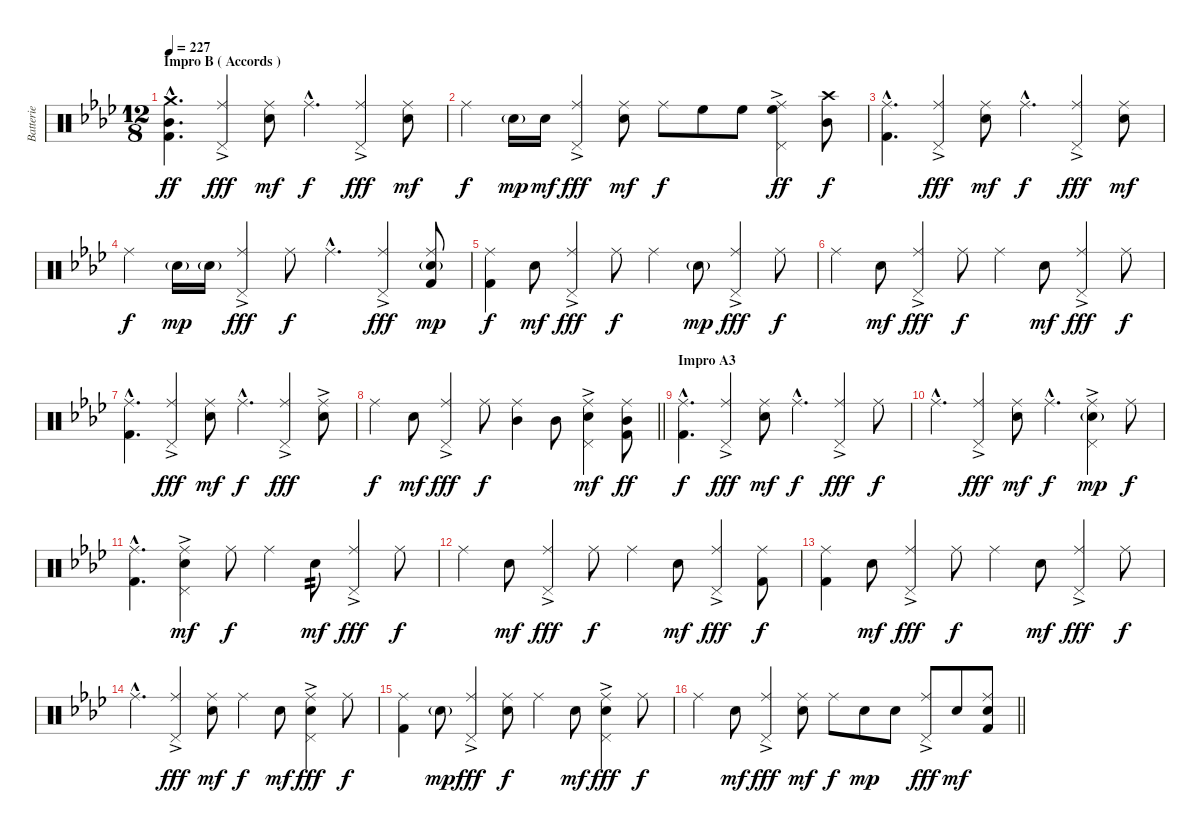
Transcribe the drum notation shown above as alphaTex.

\track ("Batterie" "Batterie") {instrument percussion}
\staff {score}
\articulation defaults
\ts (12 8)
\section ("" "Impro B ( Accords )")
\tempo 227
\clef neutral
\ks fminor
("Crash medium (hit)"{hac} "Mid Tom (hit)"{hac} "Kick (hit) 2"{hac}).4{d dy ff volume 13 balance 8} ("Ride (middle)" "Pedal Hi-Hat (hit)"{ac}).4{dy fff} ("Ride (middle)" "Snare (hit) 2").8{dy mf} "Ride (middle)"{hac}.4{d dy f} ("Ride (middle)" "Pedal Hi-Hat (hit)"{ac}).4{dy fff} ("Ride (middle)" "Snare (hit) 2").8{dy mf} |
"Ride (middle)".4{dy f} "Snare (hit) 2"{g}.16{dy mp} "Snare (hit) 2".16{dy mf} ("Ride (middle)" "Pedal Hi-Hat (hit)"{ac}).4{dy fff} ("Ride (middle)" "Snare (hit) 2").8{dy mf} "Ride (middle)".8{dy f} "High Floor Tom (hit)".8 "High Floor Tom (hit)".8 ("Ride (middle)" "Pedal Hi-Hat (hit)"{ac} "High Floor Tom (hit)").4{dy ff} ("Crash high (hit)" "Mid Tom (hit)").8{dy f} |
("Ride (middle)"{hac} "Kick (hit) 2"{hac}).4{d} ("Ride (middle)" "Pedal Hi-Hat (hit)"{ac}).4{dy fff} ("Ride (middle)" "Snare (hit) 2").8{dy mf} "Ride (middle)"{hac}.4{d dy f} ("Ride (middle)" "Pedal Hi-Hat (hit)"{ac}).4{dy fff} ("Ride (middle)" "Snare (hit) 2").8{dy mf} |
"Ride (middle)".4{dy f} "Snare (hit) 2"{g}.16{dy mp} "Snare (hit) 2"{g}.16 ("Ride (middle)" "Pedal Hi-Hat (hit)"{ac}).4{dy fff} "Ride (middle)".8{dy f} "Ride (middle)"{hac}.4{d} ("Ride (middle)" "Pedal Hi-Hat (hit)"{ac}).4{dy fff} ("Ride (middle)" "Snare (hit) 2"{g} "Kick (hit) 2").8{dy mp} |
("Ride (middle)" "Kick (hit) 2").4{dy f} "Snare (hit) 2".8{dy mf} ("Ride (middle)" "Pedal Hi-Hat (hit)"{ac}).4{dy fff} "Ride (middle)".8{dy f} "Ride (middle)".4 "Snare (hit) 2"{g}.8{dy mp} ("Ride (middle)" "Pedal Hi-Hat (hit)"{ac}).4{dy fff} "Ride (middle)".8{dy f} |
"Ride (middle)".4 "Snare (hit) 2".8{dy mf} ("Ride (middle)" "Pedal Hi-Hat (hit)"{ac}).4{dy fff} "Ride (middle)".8{dy f} "Ride (middle)".4 "Snare (hit) 2".8{dy mf} ("Ride (middle)" "Pedal Hi-Hat (hit)"{ac}).4{dy fff} "Ride (middle)".8{dy f} |
("Ride (middle)"{hac} "Kick (hit) 2"{hac}).4{d} ("Ride (middle)" "Pedal Hi-Hat (hit)"{ac}).4{dy fff} ("Ride (middle)" "Snare (hit) 2").8{dy mf} "Ride (middle)"{hac}.4{d dy f} ("Ride (middle)" "Pedal Hi-Hat (hit)"{ac}).4{dy fff} ("Ride (middle)"{ac} "Snare (hit) 2"{ac}).8 |
\barLineRight lightlight "Ride (middle)".4{dy f} "Snare (hit) 2".8{dy mf}
("Ride (middle)" "Pedal Hi-Hat (hit)"{ac}).4{dy fff} "Ride (middle)".8{dy f} ("Ride (middle)" "Mid Tom (hit)").4 "Mid Tom (hit)".8 ("Ride (middle)" "Pedal Hi-Hat (hit)"{ac} "Snare (hit) 2").4{dy mf} ("Ride (middle)" "Mid Tom (hit)" "Kick (hit) 2").8{dy ff} |
\section ("" "Impro A3")
("Ride (middle)"{hac} "Kick (hit) 2"{hac}).4{d dy f volume 12 balance 8} ("Ride (middle)" "Pedal Hi-Hat (hit)"{ac}).4{dy fff} ("Ride (middle)" "Snare (hit) 2").8{dy mf} "Ride (middle)"{hac}.4{d dy f} ("Ride (middle)" "Pedal Hi-Hat (hit)"{ac}).4{dy fff} "Ride (middle)".8{dy f} |
"Ride (middle)"{hac}.4{d} ("Ride (middle)" "Pedal Hi-Hat (hit)"{ac}).4{dy fff} ("Ride (middle)" "Snare (hit) 2").8{dy mf} "Ride (middle)"{hac}.4{d dy f} ("Ride (middle)" "Pedal Hi-Hat (hit)"{ac} "Snare (hit) 2"{g}).4{dy mp} "Ride (middle)".8{dy f} |
("Ride (middle)"{hac} "Kick (hit) 2"{hac}).4{d} ("Ride (middle)" "Pedal Hi-Hat (hit)"{ac} "Snare (hit) 2").4{dy mf} "Ride (middle)".8{dy f} "Ride (middle)".4 "Snare (hit) 2".8{tp 2 dy mf} ("Ride (middle)" "Pedal Hi-Hat (hit)"{ac}).4{dy fff} "Ride (middle)".8{dy f} |
"Ride (middle)".4 "Snare (hit) 2".8{dy mf} ("Ride (middle)" "Pedal Hi-Hat (hit)"{ac}).4{dy fff} "Ride (middle)".8{dy f} "Ride (middle)".4 "Snare (hit) 2".8{dy mf} ("Ride (middle)" "Pedal Hi-Hat (hit)"{ac}).4{dy fff} ("Ride (middle)" "Kick (hit) 2").8{dy f} |
("Ride (middle)" "Kick (hit) 2").4 "Snare (hit) 2".8{dy mf} ("Ride (middle)" "Pedal Hi-Hat (hit)"{ac}).4{dy fff} "Ride (middle)".8{dy f} "Ride (middle)".4 "Snare (hit) 2".8{dy mf} ("Ride (middle)" "Pedal Hi-Hat (hit)"{ac}).4{dy fff} "Ride (middle)".8{dy f} |
"Ride (middle)"{hac}.4{d} ("Ride (middle)" "Pedal Hi-Hat (hit)"{ac}).4{dy fff} ("Ride (middle)" "Snare (hit) 2").8{dy mf} "Ride (middle)".4{dy f} "Snare (hit) 2".8{dy mf} ("Ride (middle)" "Pedal Hi-Hat (hit)"{ac} "Snare (hit) 2").4{dy fff} "Ride (middle)".8{dy f} |
("Ride (middle)" "Kick (hit) 2").4 "Snare (hit) 2"{g}.8{dy mp} ("Ride (middle)" "Pedal Hi-Hat (hit)"{ac}).4{dy fff} ("Ride (middle)" "Snare (hit) 2").8{dy f} "Ride (middle)".4 "Snare (hit) 2".8{dy mf} ("Ride (middle)" "Pedal Hi-Hat (hit)"{ac} "Snare (hit) 2").4{dy fff} "Ride (middle)".8{dy f} |
\barLineRight lightlight "Ride (middle)".4 "Snare (hit) 2".8{dy mf}
("Ride (middle)" "Pedal Hi-Hat (hit)"{ac}).4{dy fff} ("Ride (middle)" "Snare (hit) 2").8{dy mf} "Ride (middle)".8{dy f} "Snare (hit) 2".8{dy mp} "Snare (hit) 2".8 ("Ride (middle)" "Pedal Hi-Hat (hit)"{ac}).8{dy fff} "Snare (hit) 2".8{dy mf} ("Ride (middle)" "Snare (hit) 2" "Kick (hit) 2").8
